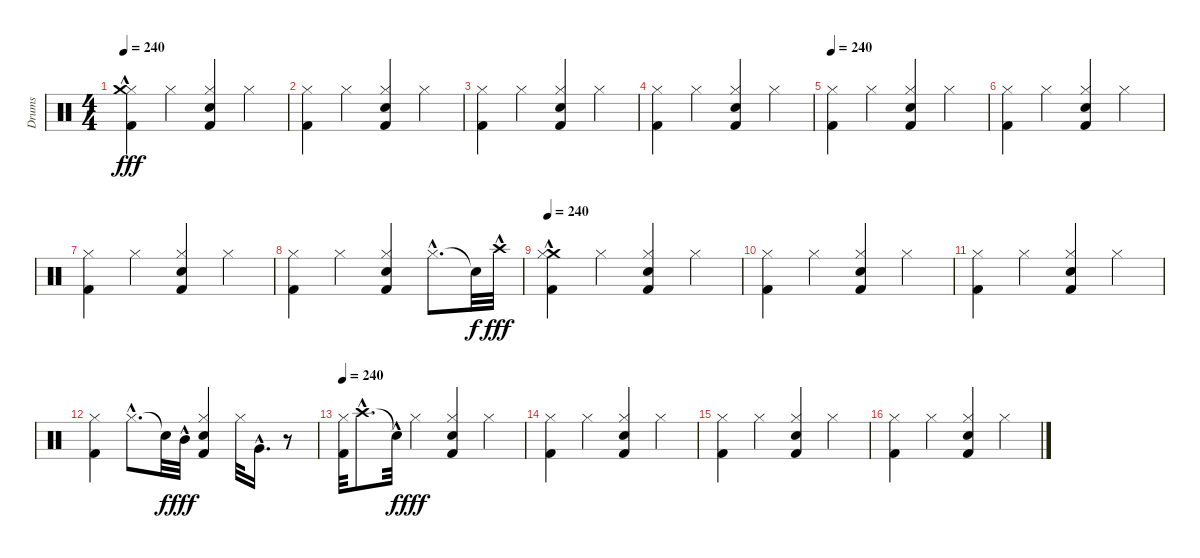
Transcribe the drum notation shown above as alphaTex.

\track ("Drums" "Drums") {instrument percussion}
\staff {score}
\articulation defaults
\ts (4 4)
\tempo 240
\clef neutral
\ks c
("Kick (hit) 2" "Hi-Hat (closed)" "Crash medium (hit)"{hac}).4{dy fff} "Hi-Hat (closed)".4 ("Kick (hit) 2" "Snare (hit) 2" "Hi-Hat (closed)").4 "Hi-Hat (closed)".4 |
("Kick (hit) 2" "Hi-Hat (closed)").4 "Hi-Hat (closed)".4 ("Snare (hit) 2" "Kick (hit) 2" "Hi-Hat (closed)").4 "Hi-Hat (closed)".4 |
("Kick (hit) 2" "Hi-Hat (closed)").4 "Hi-Hat (closed)".4 ("Snare (hit) 2" "Hi-Hat (closed)" "Kick (hit) 2").4 "Hi-Hat (closed)".4 |
("Kick (hit) 2" "Hi-Hat (closed)").4 "Hi-Hat (closed)".4 ("Snare (hit) 2" "Kick (hit) 2" "Hi-Hat (closed)").4 "Hi-Hat (closed)".4 |
\tempo 240
("Kick (hit) 2" "Hi-Hat (closed)").4 "Hi-Hat (closed)".4 ("Kick (hit) 2" "Snare (hit) 2" "Hi-Hat (closed)").4 "Hi-Hat (closed)".4 |
("Kick (hit) 2" "Hi-Hat (closed)").4 "Hi-Hat (closed)".4 ("Hi-Hat (closed)" "Snare (hit) 2" "Kick (hit) 2").4 "Hi-Hat (closed)".4 |
("Kick (hit) 2" "Hi-Hat (closed)").4 "Hi-Hat (closed)".4 ("Kick (hit) 2" "Hi-Hat (closed)" "Snare (hit) 2").4 "Hi-Hat (closed)".4 |
("Kick (hit) 2" "Hi-Hat (closed)").4 "Hi-Hat (closed)".4 ("Snare (hit) 2" "Kick (hit) 2" "Hi-Hat (closed)").4 "Hi-Hat (closed)"{hac}.8{d} "Snare (hit)"{t}.32{dy f} "Crash high (hit)"{hac}.32{dy fff} |
\tempo 240
("Crash medium (hit)"{hac} "Hi-Hat (closed)" "Kick (hit) 2").4 "Hi-Hat (closed)".4 ("Kick (hit) 2" "Snare (hit) 2" "Hi-Hat (closed)").4 "Hi-Hat (closed)".4 |
("Hi-Hat (closed)" "Kick (hit) 2").4 "Hi-Hat (closed)".4 ("Snare (hit) 2" "Kick (hit) 2" "Hi-Hat (closed)").4 "Hi-Hat (closed)".4 |
("Hi-Hat (closed)" "Kick (hit) 2").4 "Hi-Hat (closed)".4 ("Snare (hit) 2" "Hi-Hat (closed)" "Kick (hit) 2").4 "Hi-Hat (closed)".4 |
("Hi-Hat (closed)" "Kick (hit) 2").4 "Hi-Hat (closed)"{hac}.8{d} "Snare (hit)"{t}.32{dy f} "Mid Tom (hit)"{hac}.32{dy fff} ("Snare (hit) 2" "Kick (hit) 2" "Hi-Hat (closed)").4 "Hi-Hat (closed)".32 "Very Low Tom (hit)"{hac}.16{d} r.8 |
\tempo 240
("Hi-Hat (closed)" "Kick (hit) 2").32 "Crash high (hit)"{hac}.8{d} "Snare (hit)"{hac t}.32{dy f} "Hi-Hat (closed)".4{dy fff} ("Kick (hit) 2" "Snare (hit) 2" "Hi-Hat (closed)").4 "Hi-Hat (closed)".4 |
("Hi-Hat (closed)" "Kick (hit) 2").4 "Hi-Hat (closed)".4 ("Hi-Hat (closed)" "Snare (hit) 2" "Kick (hit) 2").4 "Hi-Hat (closed)".4 |
("Hi-Hat (closed)" "Kick (hit) 2").4 "Hi-Hat (closed)".4 ("Kick (hit) 2" "Hi-Hat (closed)" "Snare (hit) 2").4 "Hi-Hat (closed)".4 |
("Hi-Hat (closed)" "Kick (hit) 2").4 "Hi-Hat (closed)".4 ("Snare (hit) 2" "Kick (hit) 2" "Hi-Hat (closed)").4 "Hi-Hat (closed)".4
